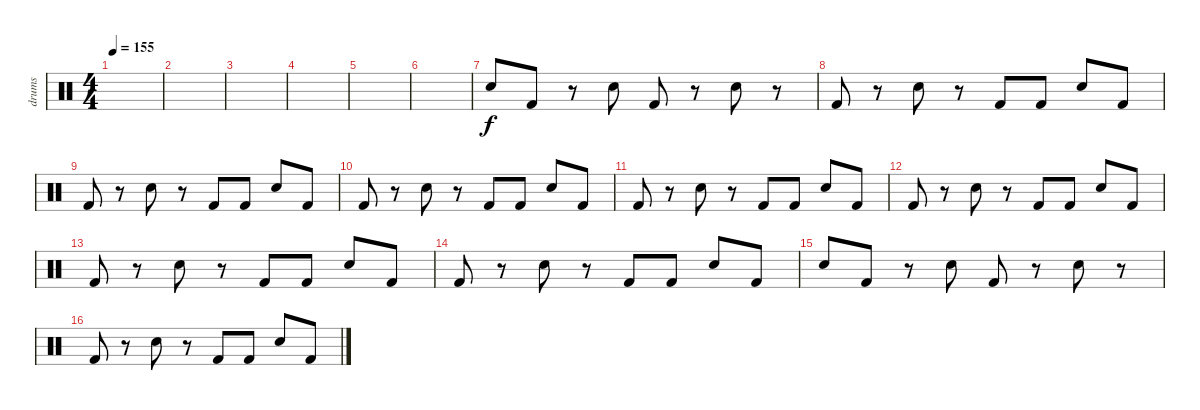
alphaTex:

\track ("drums" "drums") {instrument percussion}
\staff {score}
\articulation defaults
\ts (4 4)
\tempo 155
\clef neutral
\ks c
|
|
|
|
|
|
"Snare (hit) 2".8 "Kick (hit) 2".8 r.8 "Snare (hit) 2".8 "Kick (hit) 2".8 r.8 "Snare (hit) 2".8 r.8 |
"Kick (hit) 2".8 r.8 "Snare (hit) 2".8 r.8 "Kick (hit) 2".8 "Kick (hit) 2".8 "Snare (hit) 2".8 "Kick (hit) 2".8 |
"Kick (hit) 2".8 r.8 "Snare (hit) 2".8 r.8 "Kick (hit) 2".8 "Kick (hit) 2".8 "Snare (hit) 2".8 "Kick (hit) 2".8 |
"Kick (hit) 2".8 r.8 "Snare (hit) 2".8 r.8 "Kick (hit) 2".8 "Kick (hit) 2".8 "Snare (hit) 2".8 "Kick (hit) 2".8 |
"Kick (hit) 2".8 r.8 "Snare (hit) 2".8 r.8 "Kick (hit) 2".8 "Kick (hit) 2".8 "Snare (hit) 2".8 "Kick (hit) 2".8 |
"Kick (hit) 2".8 r.8 "Snare (hit) 2".8 r.8 "Kick (hit) 2".8 "Kick (hit) 2".8 "Snare (hit) 2".8 "Kick (hit) 2".8 |
"Kick (hit) 2".8 r.8 "Snare (hit) 2".8 r.8 "Kick (hit) 2".8 "Kick (hit) 2".8 "Snare (hit) 2".8 "Kick (hit) 2".8 |
"Kick (hit) 2".8 r.8 "Snare (hit) 2".8 r.8 "Kick (hit) 2".8 "Kick (hit) 2".8 "Snare (hit) 2".8 "Kick (hit) 2".8 |
"Snare (hit) 2".8 "Kick (hit) 2".8 r.8 "Snare (hit) 2".8 "Kick (hit) 2".8 r.8 "Snare (hit) 2".8 r.8 |
"Kick (hit) 2".8 r.8 "Snare (hit) 2".8 r.8 "Kick (hit) 2".8 "Kick (hit) 2".8 "Snare (hit) 2".8 "Kick (hit) 2".8
